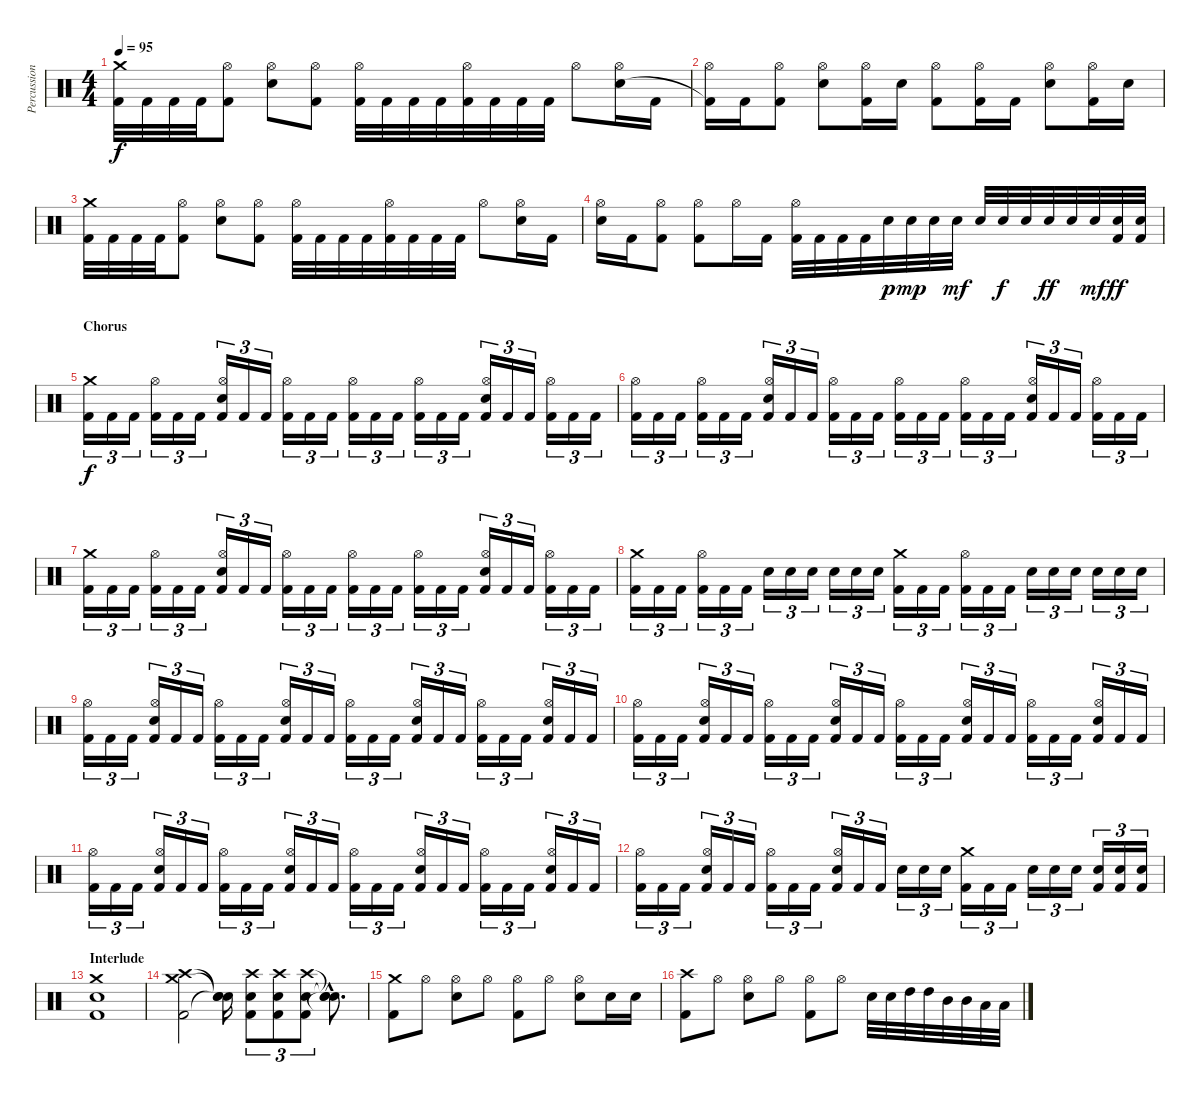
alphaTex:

\track ("Percussions" "Percussion") {instrument percussion}
\staff {score}
\articulation defaults
\ts (4 4)
\tempo 95
\clef neutral
\ks c
("Crash medium (hit)" "Kick (hit) 2").32{dy f} "Kick (hit) 2".32 "Kick (hit) 2".32 "Kick (hit) 2".32 ("Hi-Hat (open)" "Kick (hit) 2").8 ("Hi-Hat (open)" "Electric Snare (hit)").8 ("Hi-Hat (open)" "Kick (hit) 2").8 ("Hi-Hat (open)" "Kick (hit) 2").32 "Kick (hit) 2".32 "Kick (hit) 2".32 "Kick (hit) 2".32 ("Hi-Hat (open)" "Kick (hit) 2").32 "Kick (hit) 2".32 "Kick (hit) 2".32 "Kick (hit) 2".32 "Hi-Hat (open)".8 ("Hi-Hat (open)" "Electric Snare (hit)").16 "Kick (hit) 2".16 |
("Hi-Hat (open)" "Kick (hit) 2"{t}).16 "Kick (hit) 2".16 ("Hi-Hat (open)" "Kick (hit) 2").8 ("Hi-Hat (open)" "Electric Snare (hit)").8 ("Hi-Hat (open)" "Kick (hit) 2").16 "Electric Snare (hit)".16 ("Hi-Hat (open)" "Kick (hit) 2").8 ("Hi-Hat (open)" "Kick (hit) 2").16 "Kick (hit) 2".16 ("Hi-Hat (open)" "Electric Snare (hit)").8 ("Hi-Hat (open)" "Kick (hit) 2").16 "Electric Snare (hit)".16 |
("Crash medium (hit)" "Kick (hit) 2").32 "Kick (hit) 2".32 "Kick (hit) 2".32 "Kick (hit) 2".32 ("Hi-Hat (open)" "Kick (hit) 2").8 ("Hi-Hat (open)" "Electric Snare (hit)").8 ("Hi-Hat (open)" "Kick (hit) 2").8 ("Hi-Hat (open)" "Kick (hit) 2").32 "Kick (hit) 2".32 "Kick (hit) 2".32 "Kick (hit) 2".32 ("Hi-Hat (open)" "Kick (hit) 2").32 "Kick (hit) 2".32 "Kick (hit) 2".32 "Kick (hit) 2".32 "Hi-Hat (open)".8 ("Hi-Hat (open)" "Electric Snare (hit)").16 "Kick (hit) 2".16 |
("Hi-Hat (open)" "Electric Snare (hit)").16 "Kick (hit) 2".16 ("Hi-Hat (open)" "Kick (hit) 2").8 ("Hi-Hat (open)" "Kick (hit) 2").8 "Hi-Hat (open)".16 "Kick (hit) 2".16 ("Hi-Hat (open)" "Kick (hit) 2").32 "Kick (hit) 2".32 "Kick (hit) 2".32 "Kick (hit) 2".32 "Electric Snare (hit)".32{dy p} "Electric Snare (hit)".32{dy mp} "Electric Snare (hit)".32 "Electric Snare (hit)".32{dy mf} "Electric Snare (hit)".32 "Electric Snare (hit)".32{dy f} "Electric Snare (hit)".32 "Electric Snare (hit)".32{dy ff} "Electric Snare (hit)".32 "Electric Snare (hit)".32{dy mf} ("Electric Snare (hit)" "Kick (hit) 2").32{dy ff} ("Electric Snare (hit)" "Kick (hit) 2").32 |
\section ("" "Chorus")
("Crash medium (hit)" "Kick (hit) 2").16{tu (3 2) dy f} "Kick (hit) 2".16{tu (3 2)} "Kick (hit) 2".16{tu (3 2)} ("Hi-Hat (open)" "Kick (hit) 2").16{tu (3 2)} "Kick (hit) 2".16{tu (3 2)} "Kick (hit) 2".16{tu (3 2)} ("Hi-Hat (open)" "Electric Snare (hit)" "Kick (hit) 2").16{tu (3 2)} "Kick (hit) 2".16{tu (3 2)} "Kick (hit) 2".16{tu (3 2)} ("Hi-Hat (open)" "Kick (hit) 2").16{tu (3 2)} "Kick (hit) 2".16{tu (3 2)} "Kick (hit) 2".16{tu (3 2)} ("Hi-Hat (open)" "Kick (hit) 2").16{tu (3 2)} "Kick (hit) 2".16{tu (3 2)} "Kick (hit) 2".16{tu (3 2)} ("Hi-Hat (open)" "Kick (hit) 2").16{tu (3 2)} "Kick (hit) 2".16{tu (3 2)} "Kick (hit) 2".16{tu (3 2)} ("Hi-Hat (open)" "Electric Snare (hit)" "Kick (hit) 2").16{tu (3 2)} "Kick (hit) 2".16{tu (3 2)} "Kick (hit) 2".16{tu (3 2)} ("Hi-Hat (open)" "Kick (hit) 2").16{tu (3 2)} "Kick (hit) 2".16{tu (3 2)} "Kick (hit) 2".16{tu (3 2)} |
("Hi-Hat (open)" "Kick (hit) 2").16{tu (3 2)} "Kick (hit) 2".16{tu (3 2)} "Kick (hit) 2".16{tu (3 2)} ("Hi-Hat (open)" "Kick (hit) 2").16{tu (3 2)} "Kick (hit) 2".16{tu (3 2)} "Kick (hit) 2".16{tu (3 2)} ("Hi-Hat (open)" "Electric Snare (hit)" "Kick (hit) 2").16{tu (3 2)} "Kick (hit) 2".16{tu (3 2)} "Kick (hit) 2".16{tu (3 2)} ("Hi-Hat (open)" "Kick (hit) 2").16{tu (3 2)} "Kick (hit) 2".16{tu (3 2)} "Kick (hit) 2".16{tu (3 2)} ("Hi-Hat (open)" "Kick (hit) 2").16{tu (3 2)} "Kick (hit) 2".16{tu (3 2)} "Kick (hit) 2".16{tu (3 2)} ("Hi-Hat (open)" "Kick (hit) 2").16{tu (3 2)} "Kick (hit) 2".16{tu (3 2)} "Kick (hit) 2".16{tu (3 2)} ("Hi-Hat (open)" "Electric Snare (hit)" "Kick (hit) 2").16{tu (3 2)} "Kick (hit) 2".16{tu (3 2)} "Kick (hit) 2".16{tu (3 2)} ("Hi-Hat (open)" "Kick (hit) 2").16{tu (3 2)} "Kick (hit) 2".16{tu (3 2)} "Kick (hit) 2".16{tu (3 2)} |
("Crash medium (hit)" "Kick (hit) 2").16{tu (3 2)} "Kick (hit) 2".16{tu (3 2)} "Kick (hit) 2".16{tu (3 2)} ("Hi-Hat (open)" "Kick (hit) 2").16{tu (3 2)} "Kick (hit) 2".16{tu (3 2)} "Kick (hit) 2".16{tu (3 2)} ("Hi-Hat (open)" "Electric Snare (hit)" "Kick (hit) 2").16{tu (3 2)} "Kick (hit) 2".16{tu (3 2)} "Kick (hit) 2".16{tu (3 2)} ("Hi-Hat (open)" "Kick (hit) 2").16{tu (3 2)} "Kick (hit) 2".16{tu (3 2)} "Kick (hit) 2".16{tu (3 2)} ("Hi-Hat (open)" "Kick (hit) 2").16{tu (3 2)} "Kick (hit) 2".16{tu (3 2)} "Kick (hit) 2".16{tu (3 2)} ("Hi-Hat (open)" "Kick (hit) 2").16{tu (3 2)} "Kick (hit) 2".16{tu (3 2)} "Kick (hit) 2".16{tu (3 2)} ("Hi-Hat (open)" "Electric Snare (hit)" "Kick (hit) 2").16{tu (3 2)} "Kick (hit) 2".16{tu (3 2)} "Kick (hit) 2".16{tu (3 2)} ("Hi-Hat (open)" "Kick (hit) 2").16{tu (3 2)} "Kick (hit) 2".16{tu (3 2)} "Kick (hit) 2".16{tu (3 2)} |
("Crash medium (hit)" "Kick (hit) 2").16{tu (3 2)} "Kick (hit) 2".16{tu (3 2)} "Kick (hit) 2".16{tu (3 2)} ("Hi-Hat (open)" "Kick (hit) 2").16{tu (3 2)} "Kick (hit) 2".16{tu (3 2)} "Kick (hit) 2".16{tu (3 2)} "Electric Snare (hit)".16{tu (3 2)} "Electric Snare (hit)".16{tu (3 2)} "Electric Snare (hit)".16{tu (3 2)} "Electric Snare (hit)".16{tu (3 2)} "Electric Snare (hit)".16{tu (3 2)} "Electric Snare (hit)".16{tu (3 2)} ("Crash medium (hit)" "Kick (hit) 2").16{tu (3 2)} "Kick (hit) 2".16{tu (3 2)} "Kick (hit) 2".16{tu (3 2)} ("Hi-Hat (open)" "Kick (hit) 2").16{tu (3 2)} "Kick (hit) 2".16{tu (3 2)} "Kick (hit) 2".16{tu (3 2)} "Electric Snare (hit)".16{tu (3 2)} "Electric Snare (hit)".16{tu (3 2)} "Electric Snare (hit)".16{tu (3 2)} "Electric Snare (hit)".16{tu (3 2)} "Electric Snare (hit)".16{tu (3 2)} "Electric Snare (hit)".16{tu (3 2)} |
("Hi-Hat (open)" "Kick (hit) 2").16{tu (3 2)} "Kick (hit) 2".16{tu (3 2)} "Kick (hit) 2".16{tu (3 2)} ("Hi-Hat (open)" "Electric Snare (hit)" "Kick (hit) 2").16{tu (3 2)} "Kick (hit) 2".16{tu (3 2)} "Kick (hit) 2".16{tu (3 2)} ("Hi-Hat (open)" "Kick (hit) 2").16{tu (3 2)} "Kick (hit) 2".16{tu (3 2)} "Kick (hit) 2".16{tu (3 2)} ("Hi-Hat (open)" "Electric Snare (hit)" "Kick (hit) 2").16{tu (3 2)} "Kick (hit) 2".16{tu (3 2)} "Kick (hit) 2".16{tu (3 2)} ("Hi-Hat (open)" "Kick (hit) 2").16{tu (3 2)} "Kick (hit) 2".16{tu (3 2)} "Kick (hit) 2".16{tu (3 2)} ("Hi-Hat (open)" "Electric Snare (hit)" "Kick (hit) 2").16{tu (3 2)} "Kick (hit) 2".16{tu (3 2)} "Kick (hit) 2".16{tu (3 2)} ("Hi-Hat (open)" "Kick (hit) 2").16{tu (3 2)} "Kick (hit) 2".16{tu (3 2)} "Kick (hit) 2".16{tu (3 2)} ("Hi-Hat (open)" "Electric Snare (hit)" "Kick (hit) 2").16{tu (3 2)} "Kick (hit) 2".16{tu (3 2)} "Kick (hit) 2".16{tu (3 2)} |
("Hi-Hat (open)" "Kick (hit) 2").16{tu (3 2)} "Kick (hit) 2".16{tu (3 2)} "Kick (hit) 2".16{tu (3 2)} ("Hi-Hat (open)" "Electric Snare (hit)" "Kick (hit) 2").16{tu (3 2)} "Kick (hit) 2".16{tu (3 2)} "Kick (hit) 2".16{tu (3 2)} ("Hi-Hat (open)" "Kick (hit) 2").16{tu (3 2)} "Kick (hit) 2".16{tu (3 2)} "Kick (hit) 2".16{tu (3 2)} ("Hi-Hat (open)" "Electric Snare (hit)" "Kick (hit) 2").16{tu (3 2)} "Kick (hit) 2".16{tu (3 2)} "Kick (hit) 2".16{tu (3 2)} ("Hi-Hat (open)" "Kick (hit) 2").16{tu (3 2)} "Kick (hit) 2".16{tu (3 2)} "Kick (hit) 2".16{tu (3 2)} ("Hi-Hat (open)" "Electric Snare (hit)" "Kick (hit) 2").16{tu (3 2)} "Kick (hit) 2".16{tu (3 2)} "Kick (hit) 2".16{tu (3 2)} ("Hi-Hat (open)" "Kick (hit) 2").16{tu (3 2)} "Kick (hit) 2".16{tu (3 2)} "Kick (hit) 2".16{tu (3 2)} ("Hi-Hat (open)" "Electric Snare (hit)" "Kick (hit) 2").16{tu (3 2)} "Kick (hit) 2".16{tu (3 2)} "Kick (hit) 2".16{tu (3 2)} |
("Hi-Hat (open)" "Kick (hit) 2").16{tu (3 2)} "Kick (hit) 2".16{tu (3 2)} "Kick (hit) 2".16{tu (3 2)} ("Hi-Hat (open)" "Electric Snare (hit)" "Kick (hit) 2").16{tu (3 2)} "Kick (hit) 2".16{tu (3 2)} "Kick (hit) 2".16{tu (3 2)} ("Hi-Hat (open)" "Kick (hit) 2").16{tu (3 2)} "Kick (hit) 2".16{tu (3 2)} "Kick (hit) 2".16{tu (3 2)} ("Hi-Hat (open)" "Electric Snare (hit)" "Kick (hit) 2").16{tu (3 2)} "Kick (hit) 2".16{tu (3 2)} "Kick (hit) 2".16{tu (3 2)} ("Hi-Hat (open)" "Kick (hit) 2").16{tu (3 2)} "Kick (hit) 2".16{tu (3 2)} "Kick (hit) 2".16{tu (3 2)} ("Hi-Hat (open)" "Electric Snare (hit)" "Kick (hit) 2").16{tu (3 2)} "Kick (hit) 2".16{tu (3 2)} "Kick (hit) 2".16{tu (3 2)} ("Hi-Hat (open)" "Kick (hit) 2").16{tu (3 2)} "Kick (hit) 2".16{tu (3 2)} "Kick (hit) 2".16{tu (3 2)} ("Hi-Hat (open)" "Electric Snare (hit)" "Kick (hit) 2").16{tu (3 2)} "Kick (hit) 2".16{tu (3 2)} "Kick (hit) 2".16{tu (3 2)} |
("Hi-Hat (open)" "Kick (hit) 2").16{tu (3 2)} "Kick (hit) 2".16{tu (3 2)} "Kick (hit) 2".16{tu (3 2)} ("Hi-Hat (open)" "Electric Snare (hit)" "Kick (hit) 2").16{tu (3 2)} "Kick (hit) 2".16{tu (3 2)} "Kick (hit) 2".16{tu (3 2)} ("Hi-Hat (open)" "Kick (hit) 2").16{tu (3 2)} "Kick (hit) 2".16{tu (3 2)} "Kick (hit) 2".16{tu (3 2)} ("Hi-Hat (open)" "Electric Snare (hit)" "Kick (hit) 2").16{tu (3 2)} "Kick (hit) 2".16{tu (3 2)} "Kick (hit) 2".16{tu (3 2)} "Electric Snare (hit)".16{tu (3 2)} "Electric Snare (hit)".16{tu (3 2)} "Electric Snare (hit)".16{tu (3 2)} ("Crash medium (hit)" "Kick (hit) 2").16{tu (3 2)} "Kick (hit) 2".16{tu (3 2)} "Kick (hit) 2".16{tu (3 2)} "Electric Snare (hit)".16{tu (3 2)} "Electric Snare (hit)".16{tu (3 2)} "Electric Snare (hit)".16{tu (3 2)} ("Electric Snare (hit)" "Kick (hit) 2").16{tu (3 2)} ("Electric Snare (hit)" "Kick (hit) 2").16{tu (3 2)} ("Electric Snare (hit)" "Kick (hit) 2").16{tu (3 2)} |
\section ("" "Interlude")
("Crash medium (hit)" "Electric Snare (hit)" "Kick (hit) 2").1 |
("Crash medium (hit)" "Crash high (hit)" "Kick (hit) 2").2 ("Snare (hit)"{t} "Snare (hit)"{t} "Snare (hit)"{t}).16 ("Crash high (hit)" "Electric Snare (hit)" "Kick (hit) 2").8{tu (3 2)} ("Crash high (hit)" "Electric Snare (hit)" "Kick (hit) 2").8{tu (3 2)} ("Crash high (hit)" "Electric Snare (hit)" "Kick (hit) 2").8{tu (3 2)} ("Snare (hit)"{hac t} "Snare (hit)"{hac t} "Snare (hit)"{hac t}).8{d} |
("Crash medium (hit)" "Kick (hit) 2").8 "Hi-Hat (open)".8 ("Hi-Hat (open)" "Electric Snare (hit)").8 "Hi-Hat (open)".8 ("Hi-Hat (open)" "Kick (hit) 2").8 "Hi-Hat (open)".8 ("Hi-Hat (open)" "Electric Snare (hit)").8 "Electric Snare (hit)".16 "Electric Snare (hit)".16 |
("Crash high (hit)" "Kick (hit) 2").8 "Hi-Hat (open)".8 ("Hi-Hat (open)" "Electric Snare (hit)").8 "Hi-Hat (open)".8 ("Hi-Hat (open)" "Kick (hit) 2").8 "Hi-Hat (open)".8 "Electric Snare (hit)".32 "Electric Snare (hit)".32 "High Tom (hit)".32 "High Tom (hit)".32 "Mid Tom (hit)".32 "Mid Tom (hit)".32 "Low Tom (hit)".32 "Low Tom (hit)".32
